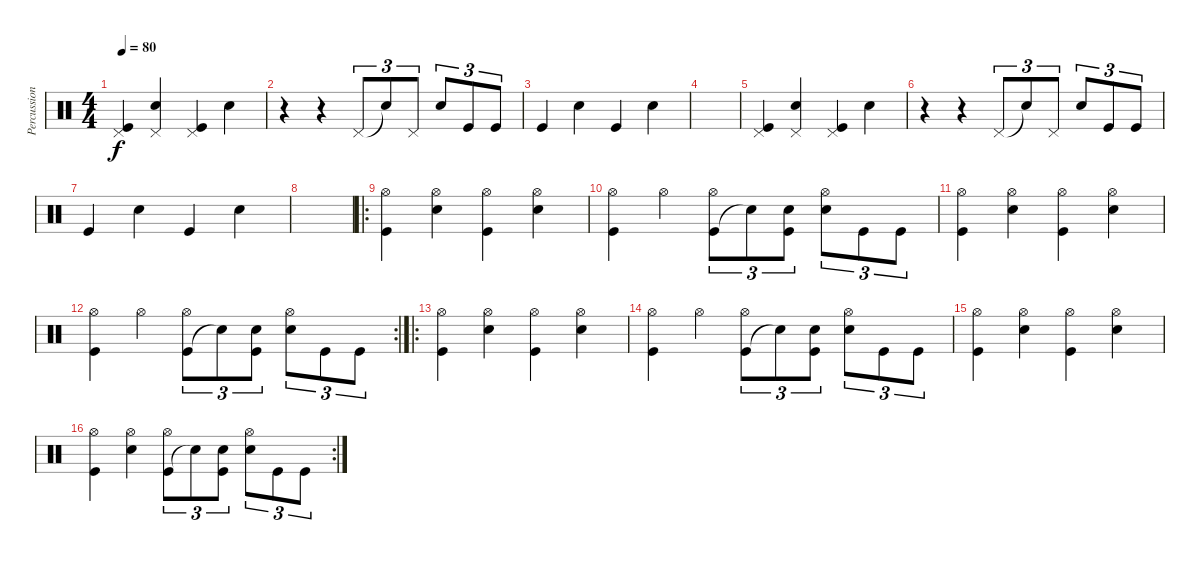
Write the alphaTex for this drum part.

\track ("Percussion" "Percussion") {instrument percussion}
\staff {score}
\articulation defaults
\ts (4 4)
\tempo 80
\clef neutral
\ks c
("Kick (hit)" "Pedal Hi-Hat (hit)").4{dy f} ("Electric Snare (hit)" "Pedal Hi-Hat (hit)").4 ("Kick (hit)" "Pedal Hi-Hat (hit)").4 "Snare (hit)".4 |
r.4 r.4 "Pedal Hi-Hat (hit)".8{tu (3 2)} "Snare (hit)"{t}.8{tu (3 2)} "Pedal Hi-Hat (hit)".8{tu (3 2)} "Electric Snare (hit)".8{tu (3 2)} "Kick (hit)".8{tu (3 2)} "Kick (hit)".8{tu (3 2)} |
"Kick (hit)".4 "Electric Snare (hit)".4 "Kick (hit)".4 "Snare (hit)".4 |
|
("Kick (hit)" "Pedal Hi-Hat (hit)").4 ("Electric Snare (hit)" "Pedal Hi-Hat (hit)").4 ("Kick (hit)" "Pedal Hi-Hat (hit)").4 "Snare (hit)".4 |
r.4 r.4 "Pedal Hi-Hat (hit)".8{tu (3 2)} "Snare (hit)"{t}.8{tu (3 2)} "Pedal Hi-Hat (hit)".8{tu (3 2)} "Electric Snare (hit)".8{tu (3 2)} "Kick (hit)".8{tu (3 2)} "Kick (hit)".8{tu (3 2)} |
"Kick (hit)".4 "Electric Snare (hit)".4 "Kick (hit)".4 "Snare (hit)".4 |
|
\ro
("Kick (hit)" "Hi-Hat (open)").4 ("Electric Snare (hit)" "Hi-Hat (open)").4 ("Kick (hit)" "Hi-Hat (open)").4 ("Snare (hit)" "Hi-Hat (open)").4 |
("Kick (hit)" "Hi-Hat (open)").4 "Hi-Hat (open)".4 ("Kick (hit)" "Hi-Hat (open)").8{tu (3 2)} "Snare (hit)"{t}.8{tu (3 2)} ("Kick (hit)" "Snare (hit)").8{tu (3 2)} ("Electric Snare (hit)" "Hi-Hat (open)").8{tu (3 2)} "Kick (hit)".8{tu (3 2)} "Kick (hit)".8{tu (3 2)} |
("Kick (hit)" "Hi-Hat (open)").4 ("Electric Snare (hit)" "Hi-Hat (open)").4 ("Kick (hit)" "Hi-Hat (open)").4 ("Snare (hit)" "Hi-Hat (open)").4 |
\rc 2
("Kick (hit)" "Hi-Hat (open)").4 "Hi-Hat (open)".4 ("Kick (hit)" "Hi-Hat (open)").8{tu (3 2)} "Snare (hit)"{t}.8{tu (3 2)} ("Kick (hit)" "Snare (hit)").8{tu (3 2)} ("Electric Snare (hit)" "Hi-Hat (open)").8{tu (3 2)} "Kick (hit)".8{tu (3 2)} "Kick (hit)".8{tu (3 2)} |
\ro
("Kick (hit)" "Hi-Hat (open)").4 ("Electric Snare (hit)" "Hi-Hat (open)").4 ("Kick (hit)" "Hi-Hat (open)").4 ("Snare (hit)" "Hi-Hat (open)").4 |
("Kick (hit)" "Hi-Hat (open)").4 "Hi-Hat (open)".4 ("Kick (hit)" "Hi-Hat (open)").8{tu (3 2)} "Snare (hit)"{t}.8{tu (3 2)} ("Kick (hit)" "Snare (hit)").8{tu (3 2)} ("Electric Snare (hit)" "Hi-Hat (open)").8{tu (3 2)} "Kick (hit)".8{tu (3 2)} "Kick (hit)".8{tu (3 2)} |
("Kick (hit)" "Hi-Hat (open)").4 ("Electric Snare (hit)" "Hi-Hat (open)").4 ("Kick (hit)" "Hi-Hat (open)").4 ("Snare (hit)" "Hi-Hat (open)").4 |
\rc 2
("Kick (hit)" "Hi-Hat (open)").4 ("Electric Snare (hit)" "Hi-Hat (open)").4 ("Kick (hit)" "Hi-Hat (open)").8{tu (3 2)} "Snare (hit)"{t}.8{tu (3 2)} ("Kick (hit)" "Snare (hit)").8{tu (3 2)} ("Electric Snare (hit)" "Hi-Hat (open)").8{tu (3 2)} "Kick (hit)".8{tu (3 2)} "Kick (hit)".8{tu (3 2)}
